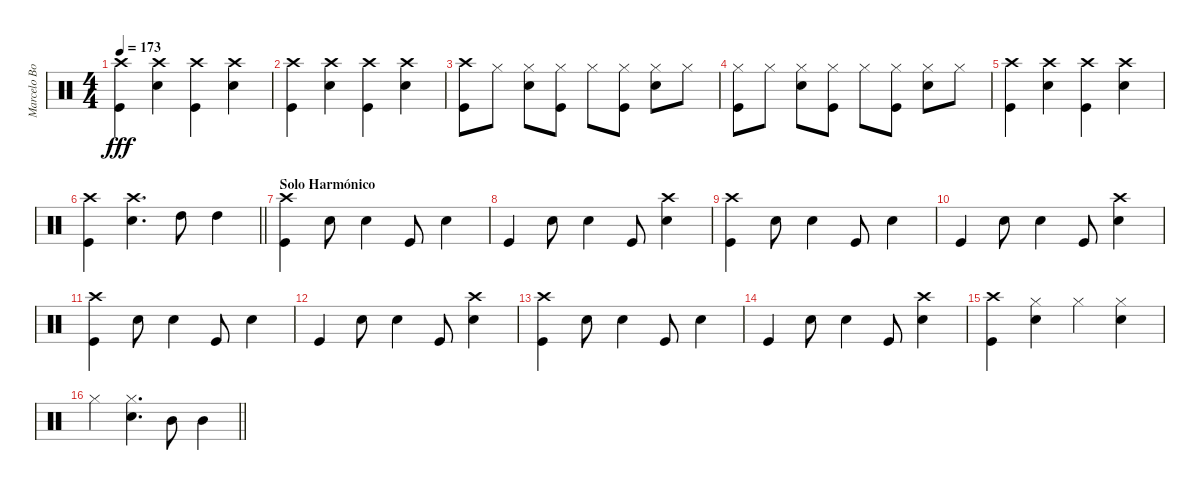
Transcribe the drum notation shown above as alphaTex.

\track ("Marcelo Bonfá (Bateria)" "Marcelo Bo") {instrument percussion}
\staff {score}
\articulation defaults
\ts (4 4)
\tempo 173
\clef neutral
\ks c
("Kick (hit)" "Crash high (hit)").4{dy fff} ("Crash high (hit)" "Snare (hit) 2").4 ("Kick (hit)" "Crash high (hit)").4 ("Snare (hit) 2" "Crash high (hit)").4 |
("Kick (hit)" "Crash high (hit)").4 ("Crash high (hit)" "Snare (hit) 2").4 ("Kick (hit)" "Crash high (hit)").4 ("Snare (hit) 2" "Crash high (hit)").4 |
("Kick (hit)" "Crash high (hit)").8 "Hi-Hat (closed)".8 ("Snare (hit) 2" "Hi-Hat (closed)").8 ("Kick (hit)" "Hi-Hat (closed)").8 "Hi-Hat (closed)".8 ("Hi-Hat (closed)" "Kick (hit)").8 ("Snare (hit) 2" "Hi-Hat (closed)").8 "Hi-Hat (closed)".8 |
("Kick (hit)" "Hi-Hat (closed)").8 "Hi-Hat (closed)".8 ("Snare (hit) 2" "Hi-Hat (closed)").8 ("Kick (hit)" "Hi-Hat (closed)").8 "Hi-Hat (closed)".8 ("Hi-Hat (closed)" "Kick (hit)").8 ("Snare (hit) 2" "Hi-Hat (closed)").8 "Hi-Hat (closed)".8 |
("Kick (hit)" "Crash high (hit)").4 ("Snare (hit) 2" "Crash high (hit)").4 ("Kick (hit)" "Crash high (hit)").4 ("Snare (hit) 2" "Crash high (hit)").4 |
\barLineRight lightlight
("Kick (hit)" "Crash high (hit)").4 ("Snare (hit) 2" "Crash high (hit)").4{d} "High Tom (hit)".8 "High Tom (hit)".4 |
\section ("" "Solo Harmónico")
("Kick (hit)" "Crash high (hit)").4 "Snare (hit) 2".8 "Snare (hit) 2".4 "Kick (hit)".8 "Snare (hit) 2".4 |
"Kick (hit)".4 "Snare (hit) 2".8 "Snare (hit) 2".4 "Kick (hit)".8 ("Snare (hit) 2" "Crash high (hit)").4 |
("Kick (hit)" "Crash high (hit)").4 "Snare (hit) 2".8 "Snare (hit) 2".4 "Kick (hit)".8 "Snare (hit) 2".4 |
"Kick (hit)".4 "Snare (hit) 2".8 "Snare (hit) 2".4 "Kick (hit)".8 ("Snare (hit) 2" "Crash high (hit)").4 |
("Kick (hit)" "Crash high (hit)").4 "Snare (hit) 2".8 "Snare (hit) 2".4 "Kick (hit)".8 "Snare (hit) 2".4 |
"Kick (hit)".4 "Snare (hit) 2".8 "Snare (hit) 2".4 "Kick (hit)".8 ("Snare (hit) 2" "Crash high (hit)").4 |
("Kick (hit)" "Crash high (hit)").4 "Snare (hit) 2".8 "Snare (hit) 2".4 "Kick (hit)".8 "Snare (hit) 2".4 |
"Kick (hit)".4 "Snare (hit) 2".8 "Snare (hit) 2".4 "Kick (hit)".8 ("Snare (hit) 2" "Crash high (hit)").4 |
("Kick (hit)" "Crash high (hit)").4 ("Snare (hit) 2" "Hi-Hat (closed)").4 "Hi-Hat (closed)".4 ("Snare (hit) 2" "Hi-Hat (closed)").4 |
\barLineRight lightlight "Hi-Hat (closed)".4
("Snare (hit) 2" "Hi-Hat (closed)").4{d} "Mid Tom (hit)".8 "Mid Tom (hit)".4
